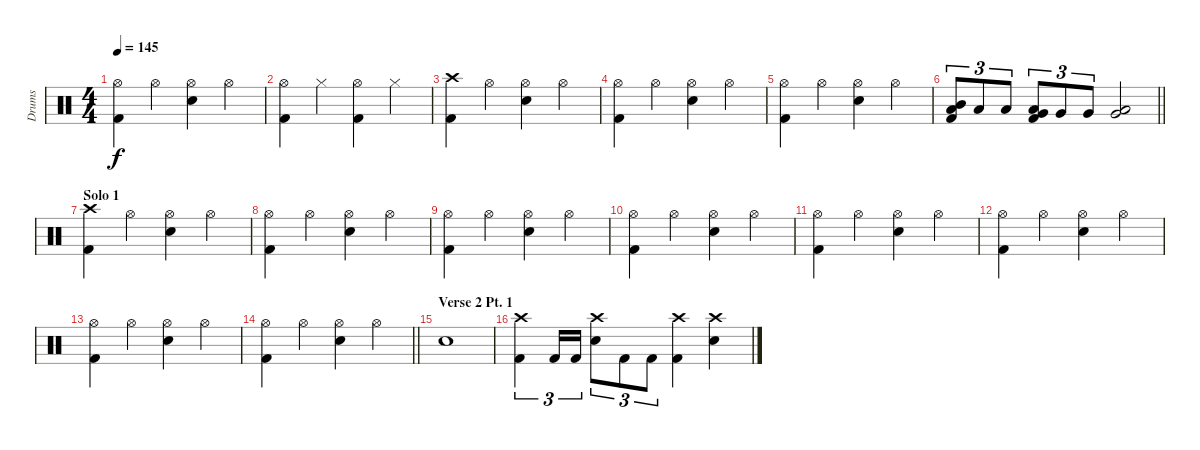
\track ("Drums" "Drums") {instrument percussion}
\staff {score}
\articulation defaults
\ts (4 4)
\tempo 145
\clef neutral
\ks c
("Hi-Hat (open)" "Kick (hit) 2").4{dy f} "Hi-Hat (open)".4 ("Hi-Hat (open)" "Electric Snare (hit)").4 "Hi-Hat (open)".4 |
("Hi-Hat (open)" "Kick (hit) 2").4 "Hi-Hat (closed)".4 ("Hi-Hat (open)" "Kick (hit) 2").4 "Hi-Hat (closed)".4 |
("Crash high (hit)" "Kick (hit) 2").4 "Hi-Hat (open)".4 ("Hi-Hat (open)" "Electric Snare (hit)").4 "Hi-Hat (open)".4 |
("Hi-Hat (open)" "Kick (hit) 2").4 "Hi-Hat (open)".4 ("Hi-Hat (open)" "Electric Snare (hit)").4 "Hi-Hat (open)".4 |
("Hi-Hat (open)" "Kick (hit) 2").4 "Hi-Hat (open)".4 ("Hi-Hat (open)" "Electric Snare (hit)").4 "Hi-Hat (open)".4 |
\barLineRight lightlight
("Mid Tom (hit)" "Low Tom (hit)" "Kick (hit) 2").8{tu (3 2)} "Low Tom (hit)".8{tu (3 2)} "Low Tom (hit)".8{tu (3 2)} ("Low Tom (hit)" "Very Low Tom (hit)" "Kick (hit) 2").8{tu (3 2)} "Very Low Tom (hit)".8{tu (3 2)} "Very Low Tom (hit)".8{tu (3 2)} ("Low Floor Tom (hit)" "Very Low Tom (hit)").2 |
\section ("" "Solo 1")
("Crash high (hit)" "Kick (hit) 2").4 "Hi-Hat (open)".4 ("Hi-Hat (open)" "Electric Snare (hit)").4 "Hi-Hat (open)".4 |
("Hi-Hat (open)" "Kick (hit) 2").4 "Hi-Hat (open)".4 ("Hi-Hat (open)" "Electric Snare (hit)").4 "Hi-Hat (open)".4 |
("Hi-Hat (open)" "Kick (hit) 2").4 "Hi-Hat (open)".4 ("Hi-Hat (open)" "Electric Snare (hit)").4 "Hi-Hat (open)".4 |
("Hi-Hat (open)" "Kick (hit) 2").4 "Hi-Hat (open)".4 ("Hi-Hat (open)" "Electric Snare (hit)").4 "Hi-Hat (open)".4 |
("Hi-Hat (open)" "Kick (hit) 2").4 "Hi-Hat (open)".4 ("Hi-Hat (open)" "Electric Snare (hit)").4 "Hi-Hat (open)".4 |
("Hi-Hat (open)" "Kick (hit) 2").4 "Hi-Hat (open)".4 ("Hi-Hat (open)" "Electric Snare (hit)").4 "Hi-Hat (open)".4 |
("Hi-Hat (open)" "Kick (hit) 2").4 "Hi-Hat (open)".4 ("Hi-Hat (open)" "Electric Snare (hit)").4 "Hi-Hat (open)".4 |
\barLineRight lightlight
("Hi-Hat (open)" "Kick (hit) 2").4 "Hi-Hat (open)".4 ("Hi-Hat (open)" "Electric Snare (hit)").4 "Hi-Hat (open)".4 |
\section ("" "Verse 2 Pt. 1")
"Electric Snare (hit)".1 |
("Crash high (hit)" "Kick (hit) 2").4{tu (3 2)} "Kick (hit) 2".16{tu (3 2)} "Kick (hit) 2".16{tu (3 2)} ("Crash high (hit)" "Electric Snare (hit)").8{tu (3 2)} "Kick (hit) 2".8{tu (3 2)} "Kick (hit) 2".8{tu (3 2)} ("Crash high (hit)" "Kick (hit) 2").4 ("Crash high (hit)" "Electric Snare (hit)").4
